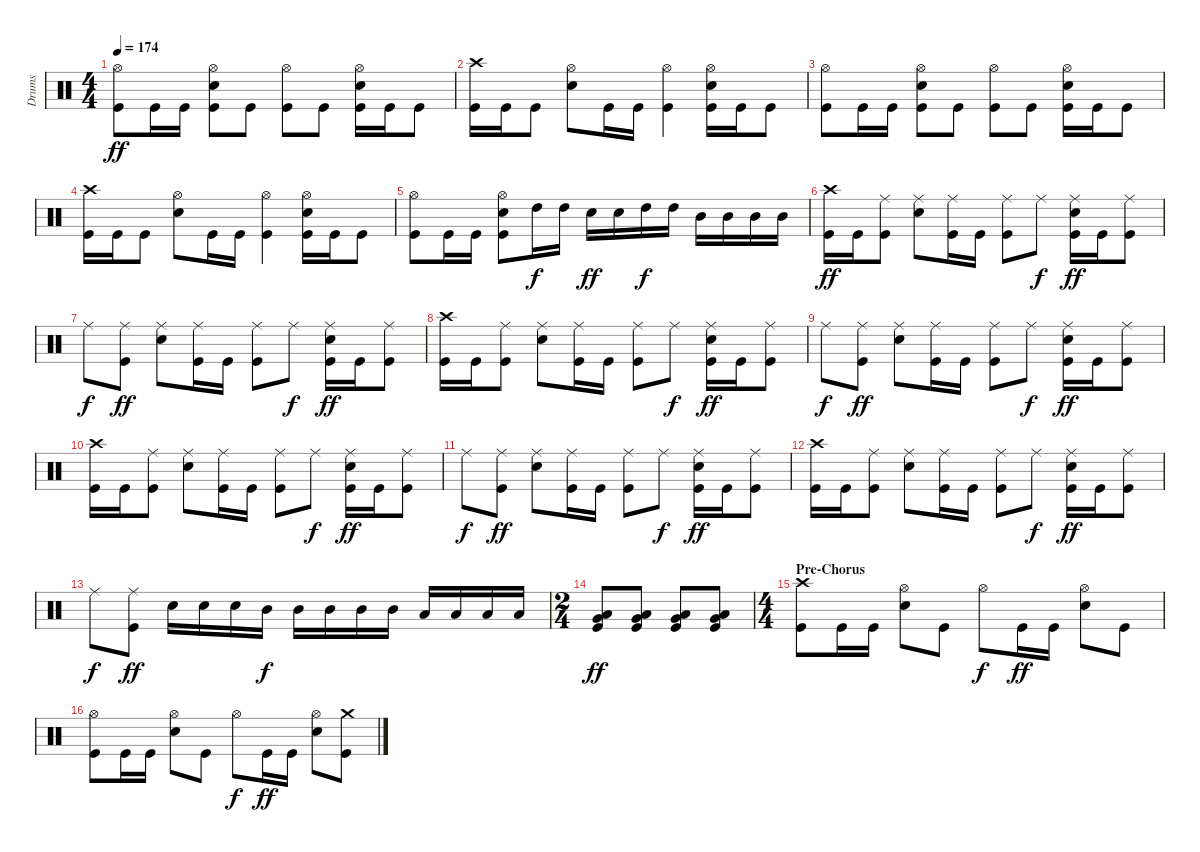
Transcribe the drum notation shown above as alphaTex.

\track ("Drums" "Drums") {instrument percussion}
\staff {score}
\articulation defaults
\ts (4 4)
\tempo 174
\clef neutral
\ks c
("Hi-Hat (open)" "Kick (hit)").8{dy ff} "Kick (hit)".16 "Kick (hit)".16 ("Hi-Hat (open)" "Electric Snare (hit)" "Kick (hit)").8 "Kick (hit)".8 ("Hi-Hat (open)" "Kick (hit)").8 "Kick (hit)".8 ("Hi-Hat (open)" "Electric Snare (hit)" "Kick (hit)").16 "Kick (hit)".16 "Kick (hit)".8 |
("Crash high (hit)" "Kick (hit)").16 "Kick (hit)".16 "Kick (hit)".8 ("Hi-Hat (open)" "Electric Snare (hit)").8 "Kick (hit)".16 "Kick (hit)".16 ("Hi-Hat (open)" "Kick (hit)").4 ("Hi-Hat (open)" "Electric Snare (hit)" "Kick (hit)").16 "Kick (hit)".16 "Kick (hit)".8 |
("Hi-Hat (open)" "Kick (hit)").8 "Kick (hit)".16 "Kick (hit)".16 ("Hi-Hat (open)" "Electric Snare (hit)" "Kick (hit)").8 "Kick (hit)".8 ("Hi-Hat (open)" "Kick (hit)").8 "Kick (hit)".8 ("Hi-Hat (open)" "Electric Snare (hit)" "Kick (hit)").16 "Kick (hit)".16 "Kick (hit)".8 |
("Crash high (hit)" "Kick (hit)").16 "Kick (hit)".16 "Kick (hit)".8 ("Hi-Hat (open)" "Electric Snare (hit)").8 "Kick (hit)".16 "Kick (hit)".16 ("Hi-Hat (open)" "Kick (hit)").4 ("Hi-Hat (open)" "Electric Snare (hit)" "Kick (hit)").16 "Kick (hit)".16 "Kick (hit)".8 |
("Hi-Hat (open)" "Kick (hit)").8 "Kick (hit)".16 "Kick (hit)".16 ("Hi-Hat (open)" "Electric Snare (hit)" "Kick (hit)").8 "High Tom (hit)".16{dy f} "High Tom (hit)".16 "Electric Snare (hit)".16{dy ff} "Electric Snare (hit)".16 "High Tom (hit)".16{dy f} "High Tom (hit)".16 "Mid Tom (hit)".16 "Mid Tom (hit)".16 "Mid Tom (hit)".16 "Mid Tom (hit)".16 |
("Crash high (hit)" "Kick (hit)").16{dy ff} "Kick (hit)".16 ("Ride (middle)" "Kick (hit)").8 ("Ride (middle)" "Electric Snare (hit)").8 ("Ride (middle)" "Kick (hit)").16 "Kick (hit)".16 ("Ride (middle)" "Kick (hit)").8 "Ride (middle)".8{dy f} ("Ride (middle)" "Electric Snare (hit)" "Kick (hit)").16{dy ff} "Kick (hit)".16 ("Ride (middle)" "Kick (hit)").8 |
"Ride (middle)".8{dy f} ("Ride (middle)" "Kick (hit)").8{dy ff} ("Ride (middle)" "Electric Snare (hit)").8 ("Ride (middle)" "Kick (hit)").16 "Kick (hit)".16 ("Ride (middle)" "Kick (hit)").8 "Ride (middle)".8{dy f} ("Ride (middle)" "Electric Snare (hit)" "Kick (hit)").16{dy ff} "Kick (hit)".16 ("Ride (middle)" "Kick (hit)").8 |
("Crash high (hit)" "Kick (hit)").16 "Kick (hit)".16 ("Ride (middle)" "Kick (hit)").8 ("Ride (middle)" "Electric Snare (hit)").8 ("Ride (middle)" "Kick (hit)").16 "Kick (hit)".16 ("Ride (middle)" "Kick (hit)").8 "Ride (middle)".8{dy f} ("Ride (middle)" "Electric Snare (hit)" "Kick (hit)").16{dy ff} "Kick (hit)".16 ("Ride (middle)" "Kick (hit)").8 |
"Ride (middle)".8{dy f} ("Ride (middle)" "Kick (hit)").8{dy ff} ("Ride (middle)" "Electric Snare (hit)").8 ("Ride (middle)" "Kick (hit)").16 "Kick (hit)".16 ("Ride (middle)" "Kick (hit)").8 "Ride (middle)".8{dy f} ("Ride (middle)" "Electric Snare (hit)" "Kick (hit)").16{dy ff} "Kick (hit)".16 ("Ride (middle)" "Kick (hit)").8 |
("Crash high (hit)" "Kick (hit)").16 "Kick (hit)".16 ("Ride (middle)" "Kick (hit)").8 ("Ride (middle)" "Electric Snare (hit)").8 ("Ride (middle)" "Kick (hit)").16 "Kick (hit)".16 ("Ride (middle)" "Kick (hit)").8 "Ride (middle)".8{dy f} ("Ride (middle)" "Electric Snare (hit)" "Kick (hit)").16{dy ff} "Kick (hit)".16 ("Ride (middle)" "Kick (hit)").8 |
"Ride (middle)".8{dy f} ("Ride (middle)" "Kick (hit)").8{dy ff} ("Ride (middle)" "Electric Snare (hit)").8 ("Ride (middle)" "Kick (hit)").16 "Kick (hit)".16 ("Ride (middle)" "Kick (hit)").8 "Ride (middle)".8{dy f} ("Ride (middle)" "Electric Snare (hit)" "Kick (hit)").16{dy ff} "Kick (hit)".16 ("Ride (middle)" "Kick (hit)").8 |
("Crash high (hit)" "Kick (hit)").16 "Kick (hit)".16 ("Ride (middle)" "Kick (hit)").8 ("Ride (middle)" "Electric Snare (hit)").8 ("Ride (middle)" "Kick (hit)").16 "Kick (hit)".16 ("Ride (middle)" "Kick (hit)").8 "Ride (middle)".8{dy f} ("Ride (middle)" "Electric Snare (hit)" "Kick (hit)").16{dy ff} "Kick (hit)".16 ("Ride (middle)" "Kick (hit)").8 |
"Ride (middle)".8{dy f} ("Ride (middle)" "Kick (hit)").8{dy ff} "Electric Snare (hit)".16 "Electric Snare (hit)".16 "Electric Snare (hit)".16 "Mid Tom (hit)".16{dy f} "Mid Tom (hit)".16 "Mid Tom (hit)".16 "Mid Tom (hit)".16 "Mid Tom (hit)".16 "Low Tom (hit)".16 "Low Tom (hit)".16 "Low Tom (hit)".16 "Low Tom (hit)".16 |
\ts (2 4)
("Low Tom (hit)" "Very Low Tom (hit)" "Kick (hit)").8{dy ff} ("Low Tom (hit)" "Very Low Tom (hit)" "Kick (hit)").8 ("Low Tom (hit)" "Very Low Tom (hit)" "Kick (hit)").8 ("Low Tom (hit)" "Very Low Tom (hit)" "Kick (hit)").8 |
\ts (4 4)
\section ("" "Pre-Chorus")
("Crash high (hit)" "Kick (hit)").8 "Kick (hit)".16 "Kick (hit)".16 ("Hi-Hat (open)" "Electric Snare (hit)").8 "Kick (hit)".8 "Hi-Hat (open)".8{dy f} "Kick (hit)".16{dy ff} "Kick (hit)".16 ("Hi-Hat (open)" "Electric Snare (hit)").8 "Kick (hit)".8 |
("Hi-Hat (open)" "Kick (hit)").8 "Kick (hit)".16 "Kick (hit)".16 ("Hi-Hat (open)" "Electric Snare (hit)").8 "Kick (hit)".8 "Hi-Hat (open)".8{dy f} "Kick (hit)".16{dy ff} "Kick (hit)".16 ("Hi-Hat (open)" "Electric Snare (hit)").8 ("Crash medium (hit)" "Kick (hit)").8
